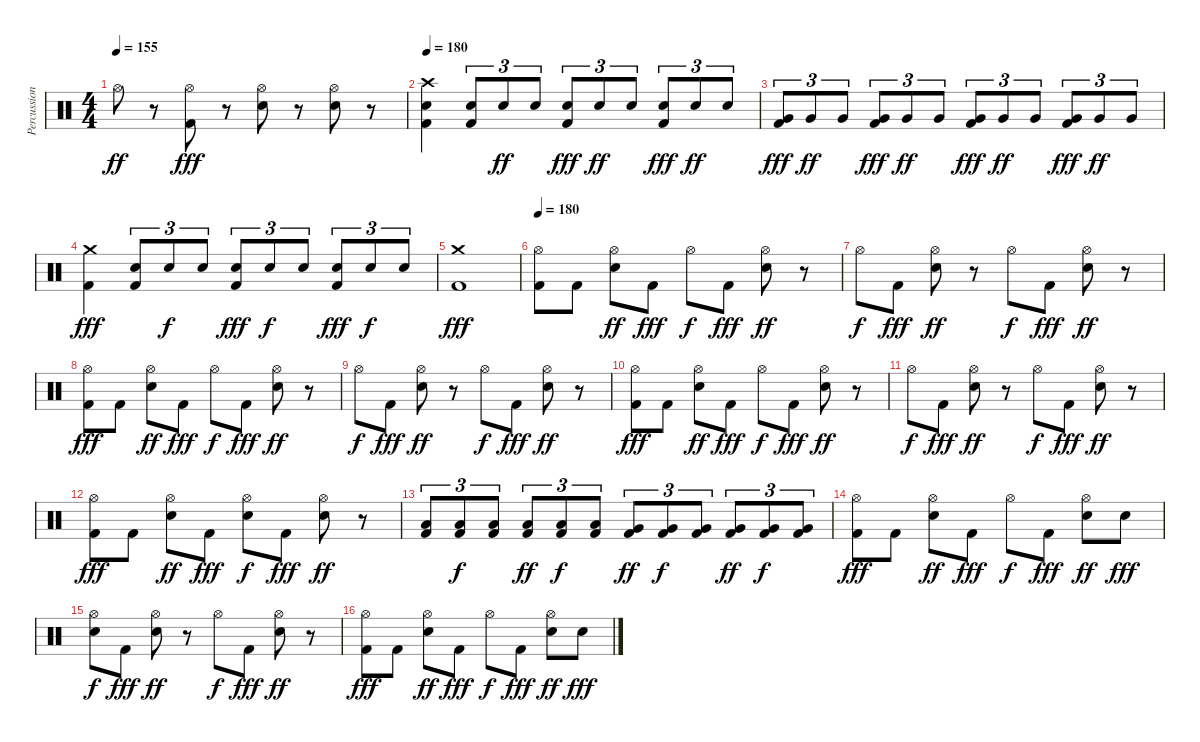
\track ("Percussion" "Percussion") {instrument percussion}
\staff {score}
\articulation defaults
\ts (4 4)
\tempo 155
\clef neutral
\ks c "Hi-Hat (open)".8{dy ff}
r.8 ("Hi-Hat (open)" "Kick (hit) 2").8{dy fff} r.8 ("Hi-Hat (open)" "Electric Snare (hit)").8 r.8 ("Hi-Hat (open)" "Electric Snare (hit)").8 r.8 |
\tempo 180
("Crash high (hit)" "Electric Snare (hit)" "Kick (hit) 2").4 ("Electric Snare (hit)" "Kick (hit) 2").8{tu (3 2)} "Electric Snare (hit)".8{tu (3 2) dy ff} "Electric Snare (hit)".8{tu (3 2)} ("Electric Snare (hit)" "Kick (hit) 2").8{tu (3 2) dy fff} "Electric Snare (hit)".8{tu (3 2) dy ff} "Electric Snare (hit)".8{tu (3 2)} ("Electric Snare (hit)" "Kick (hit) 2").8{tu (3 2) dy fff} "Electric Snare (hit)".8{tu (3 2) dy ff} "Electric Snare (hit)".8{tu (3 2)} |
("Very Low Tom (hit)" "Kick (hit) 2").8{tu (3 2) dy fff} "Very Low Tom (hit)".8{tu (3 2) dy ff} "Very Low Tom (hit)".8{tu (3 2)} ("Very Low Tom (hit)" "Kick (hit) 2").8{tu (3 2) dy fff} "Very Low Tom (hit)".8{tu (3 2) dy ff} "Very Low Tom (hit)".8{tu (3 2)} ("Very Low Tom (hit)" "Kick (hit) 2").8{tu (3 2) dy fff} "Very Low Tom (hit)".8{tu (3 2) dy ff} "Very Low Tom (hit)".8{tu (3 2)} ("Very Low Tom (hit)" "Kick (hit) 2").8{tu (3 2) dy fff} "Very Low Tom (hit)".8{tu (3 2) dy ff} "Very Low Tom (hit)".8{tu (3 2)} |
("Crash medium (hit)" "Kick (hit) 2").4{dy fff} ("Electric Snare (hit)" "Kick (hit) 2").8{tu (3 2)} "Electric Snare (hit)".8{tu (3 2) dy f} "Electric Snare (hit)".8{tu (3 2)} ("Electric Snare (hit)" "Kick (hit) 2").8{tu (3 2) dy fff} "Electric Snare (hit)".8{tu (3 2) dy f} "Electric Snare (hit)".8{tu (3 2)} ("Electric Snare (hit)" "Kick (hit) 2").8{tu (3 2) dy fff} "Electric Snare (hit)".8{tu (3 2) dy f} "Electric Snare (hit)".8{tu (3 2)} |
("Crash medium (hit)" "Kick (hit) 2").1{dy fff} |
\tempo 180
("Hi-Hat (open)" "Kick (hit) 2").8 "Kick (hit) 2".8 ("Hi-Hat (open)" "Electric Snare (hit)").8{dy ff} "Kick (hit) 2".8{dy fff} "Hi-Hat (open)".8{dy f} "Kick (hit) 2".8{dy fff} ("Hi-Hat (open)" "Electric Snare (hit)").8{dy ff} r.8 |
"Hi-Hat (open)".8{dy f} "Kick (hit) 2".8{dy fff} ("Hi-Hat (open)" "Electric Snare (hit)").8{dy ff} r.8 "Hi-Hat (open)".8{dy f} "Kick (hit) 2".8{dy fff} ("Hi-Hat (open)" "Electric Snare (hit)").8{dy ff} r.8 |
("Hi-Hat (open)" "Kick (hit) 2").8{dy fff} "Kick (hit) 2".8 ("Hi-Hat (open)" "Electric Snare (hit)").8{dy ff} "Kick (hit) 2".8{dy fff} "Hi-Hat (open)".8{dy f} "Kick (hit) 2".8{dy fff} ("Hi-Hat (open)" "Electric Snare (hit)").8{dy ff} r.8 |
"Hi-Hat (open)".8{dy f} "Kick (hit) 2".8{dy fff} ("Hi-Hat (open)" "Electric Snare (hit)").8{dy ff} r.8 "Hi-Hat (open)".8{dy f} "Kick (hit) 2".8{dy fff} ("Hi-Hat (open)" "Electric Snare (hit)").8{dy ff} r.8 |
("Hi-Hat (open)" "Kick (hit) 2").8{dy fff} "Kick (hit) 2".8 ("Hi-Hat (open)" "Electric Snare (hit)").8{dy ff} "Kick (hit) 2".8{dy fff} "Hi-Hat (open)".8{dy f} "Kick (hit) 2".8{dy fff} ("Hi-Hat (open)" "Electric Snare (hit)").8{dy ff} r.8 |
"Hi-Hat (open)".8{dy f} "Kick (hit) 2".8{dy fff} ("Hi-Hat (open)" "Electric Snare (hit)").8{dy ff} r.8 "Hi-Hat (open)".8{dy f} "Kick (hit) 2".8{dy fff} ("Hi-Hat (open)" "Electric Snare (hit)").8{dy ff} r.8 |
("Hi-Hat (open)" "Kick (hit) 2").8{dy fff} "Kick (hit) 2".8 ("Hi-Hat (open)" "Electric Snare (hit)").8{dy ff} "Kick (hit) 2".8{dy fff} ("Hi-Hat (open)" "Snare (hit)").8{dy f} "Kick (hit) 2".8{dy fff} ("Hi-Hat (open)" "Electric Snare (hit)").8{dy ff} r.8 |
("Low Tom (hit)" "Kick (hit) 2").8{tu (3 2)} ("Low Tom (hit)" "Kick (hit) 2").8{tu (3 2) dy f} ("Low Tom (hit)" "Kick (hit) 2").8{tu (3 2)} ("Low Tom (hit)" "Kick (hit) 2").8{tu (3 2) dy ff} ("Low Tom (hit)" "Kick (hit) 2").8{tu (3 2) dy f} ("Low Tom (hit)" "Kick (hit) 2").8{tu (3 2)} ("Very Low Tom (hit)" "Kick (hit) 2").8{tu (3 2) dy ff} ("Very Low Tom (hit)" "Kick (hit) 2").8{tu (3 2) dy f} ("Very Low Tom (hit)" "Kick (hit) 2").8{tu (3 2)} ("Very Low Tom (hit)" "Kick (hit) 2").8{tu (3 2) dy ff} ("Very Low Tom (hit)" "Kick (hit) 2").8{tu (3 2) dy f} ("Very Low Tom (hit)" "Kick (hit) 2").8{tu (3 2)} |
("Hi-Hat (open)" "Kick (hit) 2").8{dy fff} "Kick (hit) 2".8 ("Hi-Hat (open)" "Electric Snare (hit)").8{dy ff} "Kick (hit) 2".8{dy fff} "Hi-Hat (open)".8{dy f} "Kick (hit) 2".8{dy fff} ("Hi-Hat (open)" "Electric Snare (hit)").8{dy ff} "Snare (hit)".8{dy fff} |
("Hi-Hat (open)" "Snare (hit)").8{dy f} "Kick (hit) 2".8{dy fff} ("Hi-Hat (open)" "Electric Snare (hit)").8{dy ff} r.8 "Hi-Hat (open)".8{dy f} "Kick (hit) 2".8{dy fff} ("Hi-Hat (open)" "Electric Snare (hit)").8{dy ff} r.8 |
("Hi-Hat (open)" "Kick (hit) 2").8{dy fff} "Kick (hit) 2".8 ("Hi-Hat (open)" "Electric Snare (hit)").8{dy ff} "Kick (hit) 2".8{dy fff} "Hi-Hat (open)".8{dy f} "Kick (hit) 2".8{dy fff} ("Hi-Hat (open)" "Electric Snare (hit)").8{dy ff} "Snare (hit)".8{dy fff}
